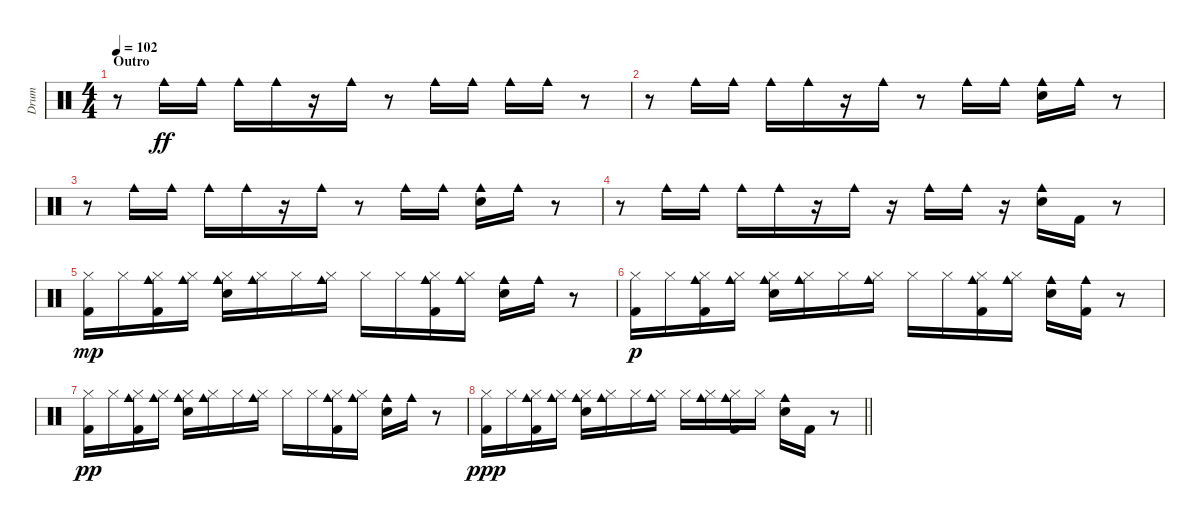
\track ("Drum" "Drum") {instrument percussion}
\staff {score}
\articulation defaults
\ts (4 4)
\section ("" "Outro")
\tempo 102
\clef neutral
\ks c
r.8{dy mp} "Cowbell medium (hit)".16{dy ff} "Cowbell medium (hit)".16 "Cowbell medium (hit)".16 "Cowbell medium (hit)".16 r.16 "Cowbell medium (hit)".16 r.8 "Cowbell medium (hit)".16 "Cowbell medium (hit)".16 "Cowbell medium (hit)".16 "Cowbell medium (hit)".16 r.8 |
r.8 "Cowbell medium (hit)".16{volume 12} "Cowbell medium (hit)".16 "Cowbell medium (hit)".16 "Cowbell medium (hit)".16 r.16 "Cowbell medium (hit)".16 r.8 "Cowbell medium (hit)".16 "Cowbell medium (hit)".16 ("Cowbell medium (hit)" "Snare (hit) 2").16 "Cowbell medium (hit)".16 r.8 |
r.8 "Cowbell medium (hit)".16{volume 12} "Cowbell medium (hit)".16 "Cowbell medium (hit)".16 "Cowbell medium (hit)".16 r.16 "Cowbell medium (hit)".16 r.8 "Cowbell medium (hit)".16 "Cowbell medium (hit)".16 ("Cowbell medium (hit)" "Electric Snare (hit)").16 "Cowbell medium (hit)".16 r.8 |
r.8 "Cowbell medium (hit)".16{volume 12} "Cowbell medium (hit)".16 "Cowbell medium (hit)".16 "Cowbell medium (hit)".16 r.16 "Cowbell medium (hit)".16 r.16 "Cowbell medium (hit)".16 "Cowbell medium (hit)".16 r.16 ("Cowbell medium (hit)" "Electric Snare (hit)").16 "Kick (hit) 2".16 r.8 |
("Hi-Hat (closed)" "Kick (hit) 2").16{dy mp volume 12} "Hi-Hat (closed)".16 ("Hi-Hat (closed)" "Kick (hit) 2" "Cowbell medium (hit)").16 ("Hi-Hat (closed)" "Cowbell medium (hit)").16 ("Electric Snare (hit)" "Hi-Hat (closed)" "Cowbell medium (hit)").16 ("Hi-Hat (closed)" "Cowbell medium (hit)").16 "Hi-Hat (closed)".16 ("Hi-Hat (closed)" "Cowbell medium (hit)").16 "Hi-Hat (closed)".16 "Hi-Hat (closed)".16 ("Hi-Hat (closed)" "Kick (hit) 2" "Cowbell medium (hit)").16 ("Hi-Hat (closed)" "Cowbell medium (hit)").16 ("Electric Snare (hit)" "Cowbell medium (hit)").16 "Cowbell medium (hit)".16 r.8 |
("Hi-Hat (closed)" "Kick (hit) 2").16{dy p volume 12} "Hi-Hat (closed)".16 ("Hi-Hat (closed)" "Kick (hit) 2" "Cowbell medium (hit)").16 ("Hi-Hat (closed)" "Cowbell medium (hit)").16 ("Electric Snare (hit)" "Hi-Hat (closed)" "Cowbell medium (hit)").16 ("Hi-Hat (closed)" "Cowbell medium (hit)").16 "Hi-Hat (closed)".16 ("Hi-Hat (closed)" "Cowbell medium (hit)").16 "Hi-Hat (closed)".16 "Hi-Hat (closed)".16 ("Hi-Hat (closed)" "Kick (hit) 2" "Cowbell medium (hit)").16 ("Hi-Hat (closed)" "Cowbell medium (hit)").16 ("Electric Snare (hit)" "Cowbell medium (hit)").16 ("Cowbell medium (hit)" "Kick (hit) 2").16 r.8 |
("Hi-Hat (closed)" "Kick (hit) 2").16{dy pp volume 12} "Hi-Hat (closed)".16 ("Hi-Hat (closed)" "Kick (hit) 2" "Cowbell medium (hit)").16 ("Hi-Hat (closed)" "Cowbell medium (hit)").16 ("Electric Snare (hit)" "Hi-Hat (closed)" "Cowbell medium (hit)").16 ("Hi-Hat (closed)" "Cowbell medium (hit)").16 "Hi-Hat (closed)".16 ("Hi-Hat (closed)" "Cowbell medium (hit)").16 "Hi-Hat (closed)".16 "Hi-Hat (closed)".16 ("Hi-Hat (closed)" "Kick (hit) 2" "Cowbell medium (hit)").16 ("Hi-Hat (closed)" "Cowbell medium (hit)").16 ("Electric Snare (hit)" "Cowbell medium (hit)").16 "Cowbell medium (hit)".16 r.8 |
\barLineRight lightlight
("Kick (hit) 2" "Hi-Hat (closed)").16{dy ppp volume 12} "Hi-Hat (closed)".16 ("Kick (hit) 2" "Hi-Hat (closed)" "Cowbell medium (hit)").16 ("Hi-Hat (closed)" "Cowbell medium (hit)").16 ("Electric Snare (hit)" "Hi-Hat (closed)" "Cowbell medium (hit)").16 ("Hi-Hat (closed)" "Cowbell medium (hit)").16 "Hi-Hat (closed)".16 ("Hi-Hat (closed)" "Cowbell medium (hit)").16 "Hi-Hat (closed)".16 ("Hi-Hat (closed)" "Cowbell medium (hit)").16 ("Hi-Hat (closed)" "Kick (hit) 2" "Cowbell medium (hit)").16 "Hi-Hat (closed)".16 ("Electric Snare (hit)" "Cowbell medium (hit)").16 "Kick (hit) 2".16 r.8
